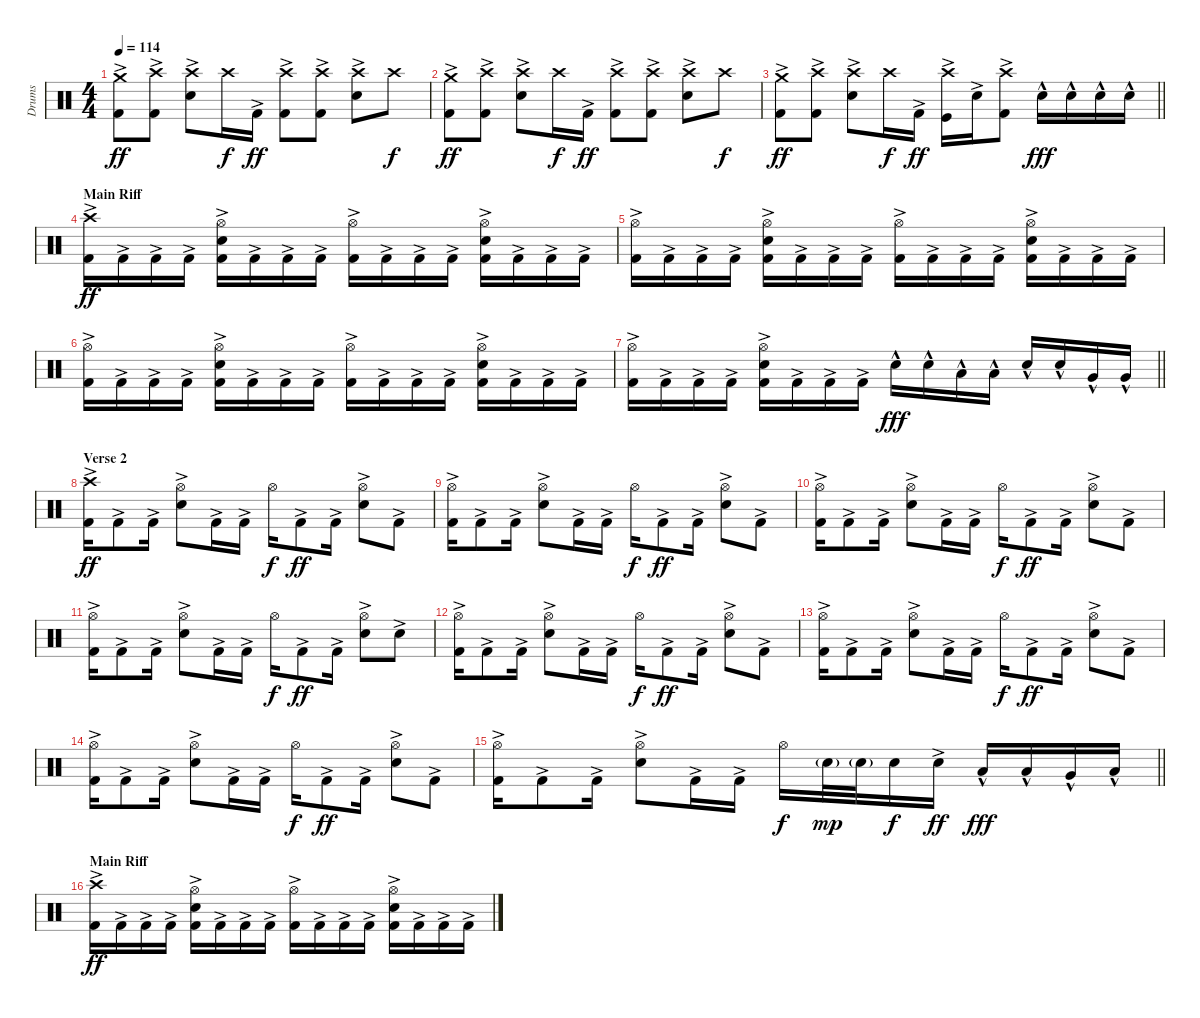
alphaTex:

\track ("Drums" "Drums") {instrument percussion}
\staff {score}
\articulation defaults
\ts (4 4)
\tempo 114
\clef neutral
\ks c
("Crash medium (hit)" "Kick (hit) 2"{ac}).8{dy ff} ("Crash high (hit)" "Kick (hit) 2"{ac}).8 ("Crash high (hit)" "Electric Snare (hit)"{ac}).8 "Crash high (hit)".16{dy f} "Kick (hit) 2"{ac}.16{dy ff} ("Crash high (hit)" "Kick (hit) 2"{ac}).8 ("Crash high (hit)" "Kick (hit) 2"{ac}).8 ("Crash high (hit)" "Electric Snare (hit)"{ac}).8 "Crash high (hit)".8{dy f} |
("Crash medium (hit)" "Kick (hit) 2"{ac}).8{dy ff} ("Crash high (hit)" "Kick (hit) 2"{ac}).8 ("Crash high (hit)" "Electric Snare (hit)"{ac}).8 "Crash high (hit)".16{dy f} "Kick (hit) 2"{ac}.16{dy ff} ("Crash high (hit)" "Kick (hit) 2"{ac}).8 ("Crash high (hit)" "Kick (hit) 2"{ac}).8 ("Crash high (hit)" "Electric Snare (hit)"{ac}).8 "Crash high (hit)".8{dy f} |
\barLineRight lightlight
("Crash medium (hit)" "Kick (hit) 2"{ac}).8{dy ff} ("Crash high (hit)" "Kick (hit) 2"{ac}).8 ("Crash high (hit)" "Electric Snare (hit)"{ac}).8 "Crash high (hit)".16{dy f} "Kick (hit) 2"{ac}.16{dy ff} ("Crash high (hit)" "Kick (hit)"{ac}).16 "Electric Snare (hit)"{ac}.16 ("Crash high (hit)" "Kick (hit) 2"{ac}).8 "Electric Snare (hit)"{hac}.16{dy fff} "Electric Snare (hit)"{hac}.16 "Electric Snare (hit)"{hac}.16 "Electric Snare (hit)"{hac}.16 |
\section ("" "Main Riff")
("Crash high (hit)" "Kick (hit) 2"{ac}).16{dy ff} "Kick (hit) 2"{ac}.16 "Kick (hit) 2"{ac}.16 "Kick (hit) 2"{ac}.16 ("Hi-Hat (open)" "Electric Snare (hit)"{ac} "Kick (hit) 2"{ac}).16 "Kick (hit) 2"{ac}.16 "Kick (hit) 2"{ac}.16 "Kick (hit) 2"{ac}.16 ("Hi-Hat (open)" "Kick (hit) 2"{ac}).16 "Kick (hit) 2"{ac}.16 "Kick (hit) 2"{ac}.16 "Kick (hit) 2"{ac}.16 ("Hi-Hat (open)" "Electric Snare (hit)"{ac} "Kick (hit) 2"{ac}).16 "Kick (hit) 2"{ac}.16 "Kick (hit) 2"{ac}.16 "Kick (hit) 2"{ac}.16 |
("Hi-Hat (open)" "Kick (hit) 2"{ac}).16 "Kick (hit) 2"{ac}.16 "Kick (hit) 2"{ac}.16 "Kick (hit) 2"{ac}.16 ("Hi-Hat (open)" "Electric Snare (hit)"{ac} "Kick (hit) 2"{ac}).16 "Kick (hit) 2"{ac}.16 "Kick (hit) 2"{ac}.16 "Kick (hit) 2"{ac}.16 ("Hi-Hat (open)" "Kick (hit) 2"{ac}).16 "Kick (hit) 2"{ac}.16 "Kick (hit) 2"{ac}.16 "Kick (hit) 2"{ac}.16 ("Hi-Hat (open)" "Electric Snare (hit)"{ac} "Kick (hit) 2"{ac}).16 "Kick (hit) 2"{ac}.16 "Kick (hit) 2"{ac}.16 "Kick (hit) 2"{ac}.16 |
("Hi-Hat (open)" "Kick (hit) 2"{ac}).16 "Kick (hit) 2"{ac}.16 "Kick (hit) 2"{ac}.16 "Kick (hit) 2"{ac}.16 ("Hi-Hat (open)" "Electric Snare (hit)"{ac} "Kick (hit) 2"{ac}).16 "Kick (hit) 2"{ac}.16 "Kick (hit) 2"{ac}.16 "Kick (hit) 2"{ac}.16 ("Hi-Hat (open)" "Kick (hit) 2"{ac}).16 "Kick (hit) 2"{ac}.16 "Kick (hit) 2"{ac}.16 "Kick (hit) 2"{ac}.16 ("Hi-Hat (open)" "Electric Snare (hit)"{ac} "Kick (hit) 2"{ac}).16 "Kick (hit) 2"{ac}.16 "Kick (hit) 2"{ac}.16 "Kick (hit) 2"{ac}.16 |
\barLineRight lightlight
("Hi-Hat (open)" "Kick (hit) 2"{ac}).16 "Kick (hit) 2"{ac}.16 "Kick (hit) 2"{ac}.16 "Kick (hit) 2"{ac}.16 ("Hi-Hat (open)" "Electric Snare (hit)"{ac} "Kick (hit) 2"{ac}).16 "Kick (hit) 2"{ac}.16 "Kick (hit) 2"{ac}.16 "Kick (hit) 2"{ac}.16 "Electric Snare (hit)"{hac}.16{dy fff} "Electric Snare (hit)"{hac}.16 "Low Tom (hit)"{hac}.16 "Low Tom (hit)"{hac}.16 "Electric Snare (hit)"{hac}.16 "Electric Snare (hit)"{hac}.16 "Very Low Tom (hit)"{hac}.16 "Very Low Tom (hit)"{hac}.16 |
\section ("" "Verse 2")
("Crash high (hit)" "Kick (hit) 2"{ac}).16{dy ff} "Kick (hit) 2"{ac}.8 "Kick (hit) 2"{ac}.16 ("Hi-Hat (open)" "Electric Snare (hit)"{ac}).8 "Kick (hit) 2"{ac}.16 "Kick (hit) 2"{ac}.16 "Hi-Hat (open)".16{dy f} "Kick (hit) 2"{ac}.8{dy ff} "Kick (hit) 2"{ac}.16 ("Hi-Hat (open)" "Electric Snare (hit)"{ac}).8 "Kick (hit) 2"{ac}.8 |
("Hi-Hat (open)" "Kick (hit) 2"{ac}).16 "Kick (hit) 2"{ac}.8 "Kick (hit) 2"{ac}.16 ("Hi-Hat (open)" "Electric Snare (hit)"{ac}).8 "Kick (hit) 2"{ac}.16 "Kick (hit) 2"{ac}.16 "Hi-Hat (open)".16{dy f} "Kick (hit) 2"{ac}.8{dy ff} "Kick (hit) 2"{ac}.16 ("Hi-Hat (open)" "Electric Snare (hit)"{ac}).8 "Kick (hit) 2"{ac}.8 |
("Hi-Hat (open)" "Kick (hit) 2"{ac}).16 "Kick (hit) 2"{ac}.8 "Kick (hit) 2"{ac}.16 ("Hi-Hat (open)" "Electric Snare (hit)"{ac}).8 "Kick (hit) 2"{ac}.16 "Kick (hit) 2"{ac}.16 "Hi-Hat (open)".16{dy f} "Kick (hit) 2"{ac}.8{dy ff} "Kick (hit) 2"{ac}.16 ("Hi-Hat (open)" "Electric Snare (hit)"{ac}).8 "Kick (hit) 2"{ac}.8 |
("Hi-Hat (open)" "Kick (hit) 2"{ac}).16 "Kick (hit) 2"{ac}.8 "Kick (hit) 2"{ac}.16 ("Hi-Hat (open)" "Electric Snare (hit)"{ac}).8 "Kick (hit) 2"{ac}.16 "Kick (hit) 2"{ac}.16 "Hi-Hat (open)".16{dy f} "Kick (hit) 2"{ac}.8{dy ff} "Kick (hit) 2"{ac}.16 ("Hi-Hat (open)" "Electric Snare (hit)"{ac}).8 "Electric Snare (hit)"{ac}.8 |
("Hi-Hat (open)" "Kick (hit) 2"{ac}).16 "Kick (hit) 2"{ac}.8 "Kick (hit) 2"{ac}.16 ("Hi-Hat (open)" "Electric Snare (hit)"{ac}).8 "Kick (hit) 2"{ac}.16 "Kick (hit) 2"{ac}.16 "Hi-Hat (open)".16{dy f} "Kick (hit) 2"{ac}.8{dy ff} "Kick (hit) 2"{ac}.16 ("Hi-Hat (open)" "Electric Snare (hit)"{ac}).8 "Kick (hit) 2"{ac}.8 |
("Hi-Hat (open)" "Kick (hit) 2"{ac}).16 "Kick (hit) 2"{ac}.8 "Kick (hit) 2"{ac}.16 ("Hi-Hat (open)" "Electric Snare (hit)"{ac}).8 "Kick (hit) 2"{ac}.16 "Kick (hit) 2"{ac}.16 "Hi-Hat (open)".16{dy f} "Kick (hit) 2"{ac}.8{dy ff} "Kick (hit) 2"{ac}.16 ("Hi-Hat (open)" "Electric Snare (hit)"{ac}).8 "Kick (hit) 2"{ac}.8 |
("Hi-Hat (open)" "Kick (hit) 2"{ac}).16 "Kick (hit) 2"{ac}.8 "Kick (hit) 2"{ac}.16 ("Hi-Hat (open)" "Electric Snare (hit)"{ac}).8 "Kick (hit) 2"{ac}.16 "Kick (hit) 2"{ac}.16 "Hi-Hat (open)".16{dy f} "Kick (hit) 2"{ac}.8{dy ff} "Kick (hit) 2"{ac}.16 ("Hi-Hat (open)" "Electric Snare (hit)"{ac}).8 "Kick (hit) 2"{ac}.8 |
\barLineRight lightlight
("Hi-Hat (open)" "Kick (hit) 2"{ac}).16 "Kick (hit) 2"{ac}.8 "Kick (hit) 2"{ac}.16 ("Hi-Hat (open)" "Electric Snare (hit)"{ac}).8 "Kick (hit) 2"{ac}.16 "Kick (hit) 2"{ac}.16 "Hi-Hat (open)".16{dy f} "Electric Snare (hit)"{g}.32{dy mp} "Electric Snare (hit)"{g}.32 "Electric Snare (hit)".16{dy f} "Electric Snare (hit)"{ac}.16{dy ff} "Low Floor Tom (hit)"{hac}.16{dy fff} "Low Floor Tom (hit)"{hac}.16 "Very Low Tom (hit)"{hac}.16 "Low Tom (hit)"{hac}.16 |
\section ("" "Main Riff")
("Crash high (hit)" "Kick (hit) 2"{ac}).16{dy ff} "Kick (hit) 2"{ac}.16 "Kick (hit) 2"{ac}.16 "Kick (hit) 2"{ac}.16 ("Hi-Hat (open)" "Electric Snare (hit)"{ac} "Kick (hit) 2"{ac}).16 "Kick (hit) 2"{ac}.16 "Kick (hit) 2"{ac}.16 "Kick (hit) 2"{ac}.16 ("Hi-Hat (open)" "Kick (hit) 2"{ac}).16 "Kick (hit) 2"{ac}.16 "Kick (hit) 2"{ac}.16 "Kick (hit) 2"{ac}.16 ("Hi-Hat (open)" "Electric Snare (hit)"{ac} "Kick (hit) 2"{ac}).16 "Kick (hit) 2"{ac}.16 "Kick (hit) 2"{ac}.16 "Kick (hit) 2"{ac}.16
